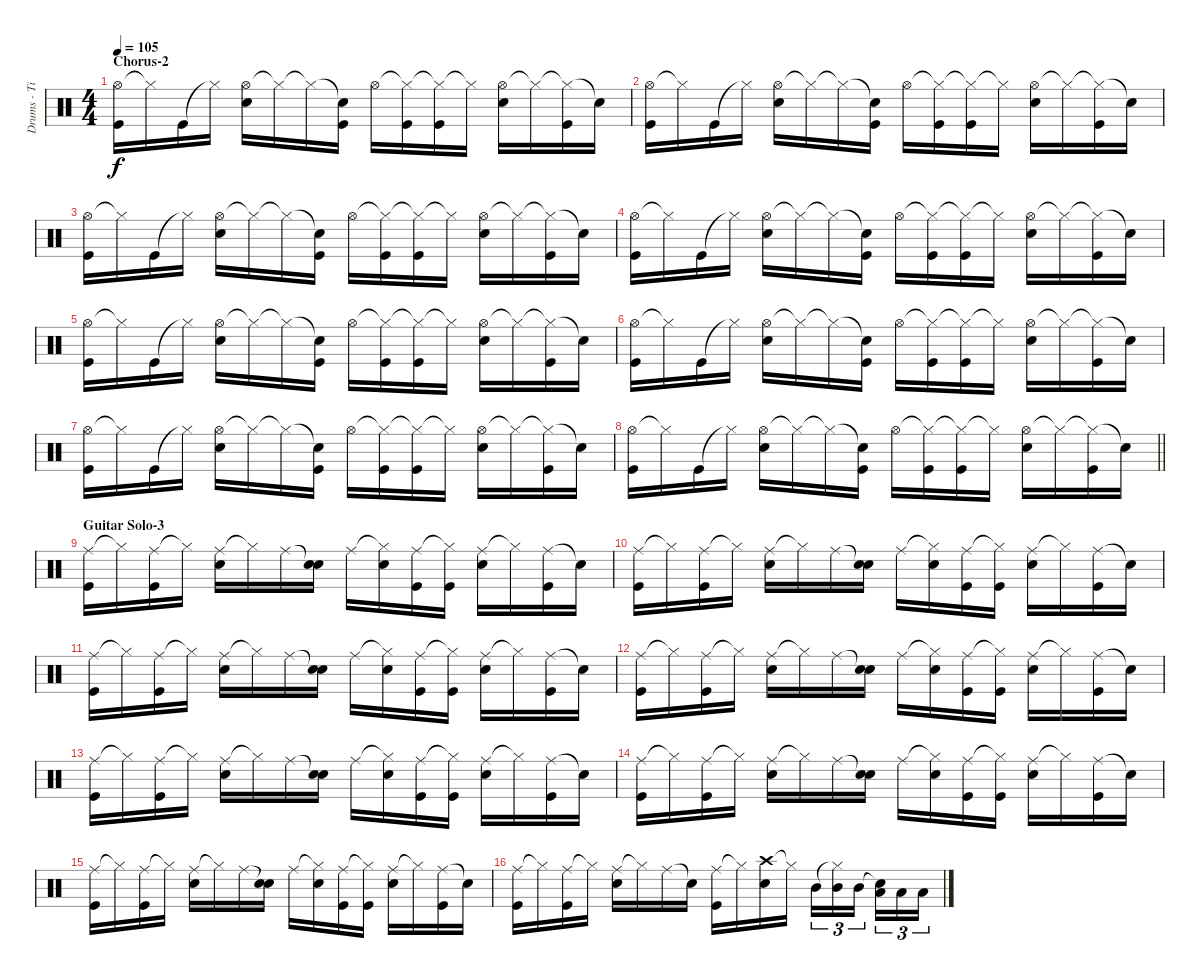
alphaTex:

\track ("Drums - Tipu" "Drums - Ti") {instrument percussion}
\staff {score}
\articulation defaults
\ts (4 4)
\section ("" "Chorus-2")
\tempo 105
\clef neutral
\ks c
("Hi-Hat (open)" "Kick (hit)").16{dy f} "Hi-Hat (closed)"{t}.16 "Kick (hit)".16 "Hi-Hat (closed)"{t}.16 ("Hi-Hat (open)" "Electric Snare (hit)").16 "Hi-Hat (closed)"{t}.16 "Hi-Hat (closed)"{t}.16 ("Snare (hit)"{t} "Kick (hit)").16 "Hi-Hat (open)".16 ("Hi-Hat (closed)"{t} "Kick (hit)").16 ("Hi-Hat (closed)"{t} "Kick (hit)").16 "Hi-Hat (closed)"{t}.16 ("Hi-Hat (open)" "Electric Snare (hit)").16 "Hi-Hat (closed)"{t}.16 ("Hi-Hat (closed)"{t} "Kick (hit)").16 "Snare (hit)"{t}.16 |
("Hi-Hat (open)" "Kick (hit)").16 "Hi-Hat (closed)"{t}.16 "Kick (hit)".16 "Hi-Hat (closed)"{t}.16 ("Hi-Hat (open)" "Electric Snare (hit)").16 "Hi-Hat (closed)"{t}.16 "Hi-Hat (closed)"{t}.16 ("Snare (hit)"{t} "Kick (hit)").16 "Hi-Hat (open)".16 ("Hi-Hat (closed)"{t} "Kick (hit)").16 ("Hi-Hat (closed)"{t} "Kick (hit)").16 "Hi-Hat (closed)"{t}.16 ("Hi-Hat (open)" "Electric Snare (hit)").16 "Hi-Hat (closed)"{t}.16 ("Hi-Hat (closed)"{t} "Kick (hit)").16 "Snare (hit)"{t}.16 |
("Hi-Hat (open)" "Kick (hit)").16 "Hi-Hat (closed)"{t}.16 "Kick (hit)".16 "Hi-Hat (closed)"{t}.16 ("Hi-Hat (open)" "Electric Snare (hit)").16 "Hi-Hat (closed)"{t}.16 "Hi-Hat (closed)"{t}.16 ("Snare (hit)"{t} "Kick (hit)").16 "Hi-Hat (open)".16 ("Hi-Hat (closed)"{t} "Kick (hit)").16 ("Hi-Hat (closed)"{t} "Kick (hit)").16 "Hi-Hat (closed)"{t}.16 ("Hi-Hat (open)" "Electric Snare (hit)").16 "Hi-Hat (closed)"{t}.16 ("Hi-Hat (closed)"{t} "Kick (hit)").16 "Snare (hit)"{t}.16 |
("Hi-Hat (open)" "Kick (hit)").16 "Hi-Hat (closed)"{t}.16 "Kick (hit)".16 "Hi-Hat (closed)"{t}.16 ("Hi-Hat (open)" "Electric Snare (hit)").16 "Hi-Hat (closed)"{t}.16 "Hi-Hat (closed)"{t}.16 ("Snare (hit)"{t} "Kick (hit)").16 "Hi-Hat (open)".16 ("Hi-Hat (closed)"{t} "Kick (hit)").16 ("Hi-Hat (closed)"{t} "Kick (hit)").16 "Hi-Hat (closed)"{t}.16 ("Hi-Hat (open)" "Electric Snare (hit)").16 "Hi-Hat (closed)"{t}.16 ("Hi-Hat (closed)"{t} "Kick (hit)").16 "Snare (hit)"{t}.16 |
("Hi-Hat (open)" "Kick (hit)").16 "Hi-Hat (closed)"{t}.16 "Kick (hit)".16 "Hi-Hat (closed)"{t}.16 ("Hi-Hat (open)" "Electric Snare (hit)").16 "Hi-Hat (closed)"{t}.16 "Hi-Hat (closed)"{t}.16 ("Snare (hit)"{t} "Kick (hit)").16 "Hi-Hat (open)".16 ("Hi-Hat (closed)"{t} "Kick (hit)").16 ("Hi-Hat (closed)"{t} "Kick (hit)").16 "Hi-Hat (closed)"{t}.16 ("Hi-Hat (open)" "Electric Snare (hit)").16 "Hi-Hat (closed)"{t}.16 ("Hi-Hat (closed)"{t} "Kick (hit)").16 "Snare (hit)"{t}.16 |
("Hi-Hat (open)" "Kick (hit)").16 "Hi-Hat (closed)"{t}.16 "Kick (hit)".16 "Hi-Hat (closed)"{t}.16 ("Hi-Hat (open)" "Electric Snare (hit)").16 "Hi-Hat (closed)"{t}.16 "Hi-Hat (closed)"{t}.16 ("Snare (hit)"{t} "Kick (hit)").16 "Hi-Hat (open)".16 ("Hi-Hat (closed)"{t} "Kick (hit)").16 ("Hi-Hat (closed)"{t} "Kick (hit)").16 "Hi-Hat (closed)"{t}.16 ("Hi-Hat (open)" "Electric Snare (hit)").16 "Hi-Hat (closed)"{t}.16 ("Hi-Hat (closed)"{t} "Kick (hit)").16 "Snare (hit)"{t}.16 |
("Hi-Hat (open)" "Kick (hit)").16 "Hi-Hat (closed)"{t}.16 "Kick (hit)".16 "Hi-Hat (closed)"{t}.16 ("Hi-Hat (open)" "Electric Snare (hit)").16 "Hi-Hat (closed)"{t}.16 "Hi-Hat (closed)"{t}.16 ("Snare (hit)"{t} "Kick (hit)").16 "Hi-Hat (open)".16 ("Hi-Hat (closed)"{t} "Kick (hit)").16 ("Hi-Hat (closed)"{t} "Kick (hit)").16 "Hi-Hat (closed)"{t}.16 ("Hi-Hat (open)" "Electric Snare (hit)").16 "Hi-Hat (closed)"{t}.16 ("Hi-Hat (closed)"{t} "Kick (hit)").16 "Snare (hit)"{t}.16 |
\barLineRight lightlight
("Hi-Hat (open)" "Kick (hit)").16 "Hi-Hat (closed)"{t}.16 "Kick (hit)".16 "Hi-Hat (closed)"{t}.16 ("Hi-Hat (open)" "Electric Snare (hit)").16 "Hi-Hat (closed)"{t}.16 "Hi-Hat (closed)"{t}.16 ("Snare (hit)"{t} "Kick (hit)").16 "Hi-Hat (open)".16 ("Hi-Hat (closed)"{t} "Kick (hit)").16 ("Hi-Hat (closed)"{t} "Kick (hit)").16 "Hi-Hat (closed)"{t}.16 ("Hi-Hat (open)" "Electric Snare (hit)").16 "Hi-Hat (closed)"{t}.16 ("Hi-Hat (closed)"{t} "Kick (hit)").16 "Snare (hit)"{t}.16 |
\section ("" "Guitar Solo-3")
("Ride (middle)" "Kick (hit)").16 "Hi-Hat (closed)"{t}.16 ("Ride (middle)" "Kick (hit)").16 "Hi-Hat (closed)"{t}.16 ("Ride (middle)" "Electric Snare (hit)").16 "Hi-Hat (closed)"{t}.16 "Ride (middle)".16 ("Snare (hit)"{t} "Electric Snare (hit)").16 "Ride (middle)".16 ("Hi-Hat (closed)"{t} "Electric Snare (hit)").16 ("Ride (middle)" "Kick (hit)").16 ("Hi-Hat (closed)"{t} "Kick (hit)").16 ("Ride (middle)" "Electric Snare (hit)").16 "Hi-Hat (closed)"{t}.16 ("Ride (middle)" "Kick (hit)").16 "Snare (hit)"{t}.16 |
("Ride (middle)" "Kick (hit)").16 "Hi-Hat (closed)"{t}.16 ("Ride (middle)" "Kick (hit)").16 "Hi-Hat (closed)"{t}.16 ("Ride (middle)" "Electric Snare (hit)").16 "Hi-Hat (closed)"{t}.16 "Ride (middle)".16 ("Snare (hit)"{t} "Electric Snare (hit)").16 "Ride (middle)".16 ("Hi-Hat (closed)"{t} "Electric Snare (hit)").16 ("Ride (middle)" "Kick (hit)").16 ("Hi-Hat (closed)"{t} "Kick (hit)").16 ("Ride (middle)" "Electric Snare (hit)").16 "Hi-Hat (closed)"{t}.16 ("Ride (middle)" "Kick (hit)").16 "Snare (hit)"{t}.16 |
("Ride (middle)" "Kick (hit)").16 "Hi-Hat (closed)"{t}.16 ("Ride (middle)" "Kick (hit)").16 "Hi-Hat (closed)"{t}.16 ("Ride (middle)" "Electric Snare (hit)").16 "Hi-Hat (closed)"{t}.16 "Ride (middle)".16 ("Snare (hit)"{t} "Electric Snare (hit)").16 "Ride (middle)".16 ("Hi-Hat (closed)"{t} "Electric Snare (hit)").16 ("Ride (middle)" "Kick (hit)").16 ("Hi-Hat (closed)"{t} "Kick (hit)").16 ("Ride (middle)" "Electric Snare (hit)").16 "Hi-Hat (closed)"{t}.16 ("Ride (middle)" "Kick (hit)").16 "Snare (hit)"{t}.16 |
("Ride (middle)" "Kick (hit)").16 "Hi-Hat (closed)"{t}.16 ("Ride (middle)" "Kick (hit)").16 "Hi-Hat (closed)"{t}.16 ("Ride (middle)" "Electric Snare (hit)").16 "Hi-Hat (closed)"{t}.16 "Ride (middle)".16 ("Snare (hit)"{t} "Electric Snare (hit)").16 "Ride (middle)".16 ("Hi-Hat (closed)"{t} "Electric Snare (hit)").16 ("Ride (middle)" "Kick (hit)").16 ("Hi-Hat (closed)"{t} "Kick (hit)").16 ("Ride (middle)" "Electric Snare (hit)").16 "Hi-Hat (closed)"{t}.16 ("Ride (middle)" "Kick (hit)").16 "Snare (hit)"{t}.16 |
("Ride (middle)" "Kick (hit)").16 "Hi-Hat (closed)"{t}.16 ("Ride (middle)" "Kick (hit)").16 "Hi-Hat (closed)"{t}.16 ("Ride (middle)" "Electric Snare (hit)").16 "Hi-Hat (closed)"{t}.16 "Ride (middle)".16 ("Snare (hit)"{t} "Electric Snare (hit)").16 "Ride (middle)".16 ("Hi-Hat (closed)"{t} "Electric Snare (hit)").16 ("Ride (middle)" "Kick (hit)").16 ("Hi-Hat (closed)"{t} "Kick (hit)").16 ("Ride (middle)" "Electric Snare (hit)").16 "Hi-Hat (closed)"{t}.16 ("Ride (middle)" "Kick (hit)").16 "Snare (hit)"{t}.16 |
("Ride (middle)" "Kick (hit)").16 "Hi-Hat (closed)"{t}.16 ("Ride (middle)" "Kick (hit)").16 "Hi-Hat (closed)"{t}.16 ("Ride (middle)" "Electric Snare (hit)").16 "Hi-Hat (closed)"{t}.16 "Ride (middle)".16 ("Snare (hit)"{t} "Electric Snare (hit)").16 "Ride (middle)".16 ("Hi-Hat (closed)"{t} "Electric Snare (hit)").16 ("Ride (middle)" "Kick (hit)").16 ("Hi-Hat (closed)"{t} "Kick (hit)").16 ("Ride (middle)" "Electric Snare (hit)").16 "Hi-Hat (closed)"{t}.16 ("Ride (middle)" "Kick (hit)").16 "Snare (hit)"{t}.16 |
("Ride (middle)" "Kick (hit)").16 "Hi-Hat (closed)"{t}.16 ("Ride (middle)" "Kick (hit)").16 "Hi-Hat (closed)"{t}.16 ("Ride (middle)" "Electric Snare (hit)").16 "Hi-Hat (closed)"{t}.16 "Ride (middle)".16 ("Snare (hit)"{t} "Electric Snare (hit)").16 "Ride (middle)".16 ("Hi-Hat (closed)"{t} "Electric Snare (hit)").16 ("Ride (middle)" "Kick (hit)").16 ("Hi-Hat (closed)"{t} "Kick (hit)").16 ("Ride (middle)" "Electric Snare (hit)").16 "Hi-Hat (closed)"{t}.16 ("Ride (middle)" "Kick (hit)").16 "Snare (hit)"{t}.16 |
("Ride (middle)" "Kick (hit)").16 "Hi-Hat (closed)"{t}.16 ("Ride (middle)" "Kick (hit)").16 "Hi-Hat (closed)"{t}.16 ("Ride (middle)" "Electric Snare (hit)").16 "Hi-Hat (closed)"{t}.16 "Ride (middle)".16 "Snare (hit)"{t}.16 ("Ride (middle)" "Kick (hit)").16 "Hi-Hat (closed)"{t}.16 ("Crash high (hit)" "Electric Snare (hit)").16 "Hi-Hat (closed)"{t}.16 "Mid Tom (hit)".16{tu (3 2)} ("Hi-Hat (closed)"{t} "Mid Tom (hit)").16{tu (3 2)} "Mid Tom (hit)".16{tu (3 2)} ("Snare (hit)"{t} "Low Tom (hit)").16{tu (3 2)} "Low Tom (hit)".16{tu (3 2)} "Low Tom (hit)".16{tu (3 2)}
